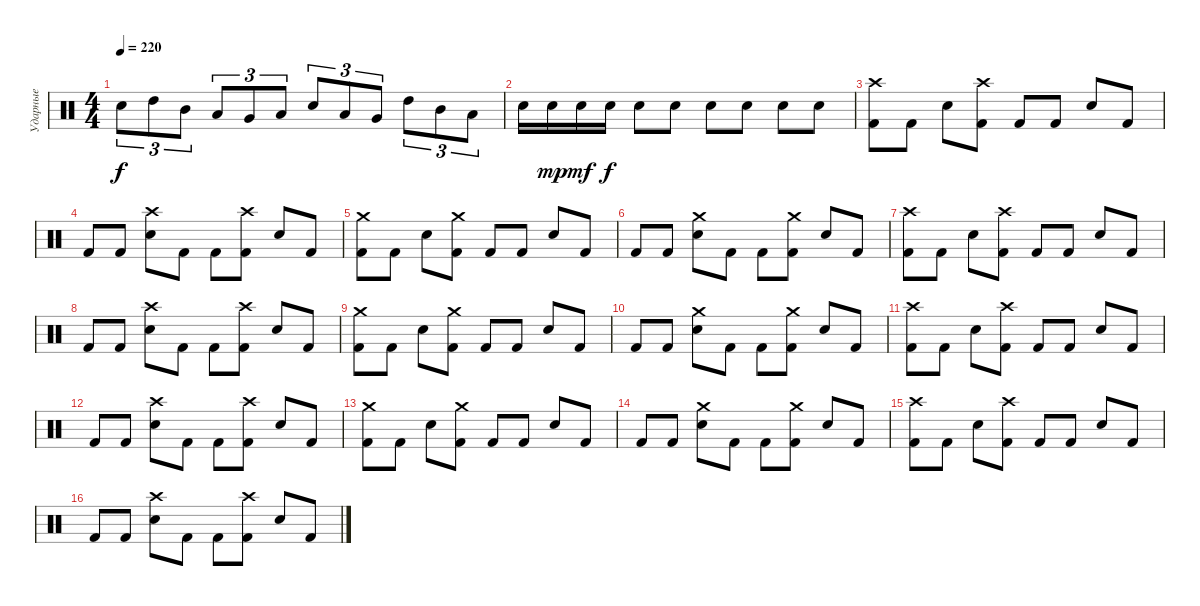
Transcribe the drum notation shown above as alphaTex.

\track ("Ударные" "Ударные") {instrument percussion}
\staff {score}
\articulation defaults
\ts (4 4)
\tempo 220
\clef neutral
\ks c "Electric Snare (hit)".8{tu (3 2) dy f} "High Tom (hit)".8{tu (3 2)} "Mid Tom (hit)".8{tu (3 2)} "Low Tom (hit)".8{tu (3 2)} "Very Low Tom (hit)".8{tu (3 2)} "Low Floor Tom (hit)".8{tu (3 2)} "Electric Snare (hit)".8{tu (3 2)} "Low Tom (hit)".8{tu (3 2)} "Very Low Tom (hit)".8{tu (3 2)} "High Tom (hit)".8{tu (3 2)} "Mid Tom (hit)".8{tu (3 2)} "Low Tom (hit)".8{tu (3 2)}
|
"Electric Snare (hit)".16 "Electric Snare (hit)".16{dy mp} "Electric Snare (hit)".16{dy mf} "Electric Snare (hit)".16{dy f} "Electric Snare (hit)".8 "Electric Snare (hit)".8 "Electric Snare (hit)".8 "Electric Snare (hit)".8 "Electric Snare (hit)".8 "Electric Snare (hit)".8 |
("Crash high (hit)" "Kick (hit) 2").8 "Kick (hit) 2".8 "Electric Snare (hit)".8 ("Crash high (hit)" "Kick (hit) 2").8 "Kick (hit) 2".8 "Kick (hit) 2".8 "Electric Snare (hit)".8 "Kick (hit) 2".8 |
"Kick (hit) 2".8 "Kick (hit) 2".8 ("Crash high (hit)" "Electric Snare (hit)").8 "Kick (hit) 2".8 "Kick (hit) 2".8 ("Crash high (hit)" "Kick (hit) 2").8 "Electric Snare (hit)".8 "Kick (hit) 2".8 |
("Crash medium (hit)" "Kick (hit) 2").8 "Kick (hit) 2".8 "Electric Snare (hit)".8 ("Crash medium (hit)" "Kick (hit) 2").8 "Kick (hit) 2".8 "Kick (hit) 2".8 "Electric Snare (hit)".8 "Kick (hit) 2".8 |
"Kick (hit) 2".8 "Kick (hit) 2".8 ("Crash medium (hit)" "Electric Snare (hit)").8 "Kick (hit) 2".8 "Kick (hit) 2".8 ("Crash medium (hit)" "Kick (hit) 2").8 "Electric Snare (hit)".8 "Kick (hit) 2".8 |
("Crash high (hit)" "Kick (hit) 2").8 "Kick (hit) 2".8 "Electric Snare (hit)".8 ("Crash high (hit)" "Kick (hit) 2").8 "Kick (hit) 2".8 "Kick (hit) 2".8 "Electric Snare (hit)".8 "Kick (hit) 2".8 |
"Kick (hit) 2".8 "Kick (hit) 2".8 ("Crash high (hit)" "Electric Snare (hit)").8 "Kick (hit) 2".8 "Kick (hit) 2".8 ("Crash high (hit)" "Kick (hit) 2").8 "Electric Snare (hit)".8 "Kick (hit) 2".8 |
("Crash medium (hit)" "Kick (hit) 2").8 "Kick (hit) 2".8 "Electric Snare (hit)".8 ("Crash medium (hit)" "Kick (hit) 2").8 "Kick (hit) 2".8 "Kick (hit) 2".8 "Electric Snare (hit)".8 "Kick (hit) 2".8 |
"Kick (hit) 2".8 "Kick (hit) 2".8 ("Crash medium (hit)" "Electric Snare (hit)").8 "Kick (hit) 2".8 "Kick (hit) 2".8 ("Crash medium (hit)" "Kick (hit) 2").8 "Electric Snare (hit)".8 "Kick (hit) 2".8 |
("Crash high (hit)" "Kick (hit) 2").8 "Kick (hit) 2".8 "Electric Snare (hit)".8 ("Crash high (hit)" "Kick (hit) 2").8 "Kick (hit) 2".8 "Kick (hit) 2".8 "Electric Snare (hit)".8 "Kick (hit) 2".8 |
"Kick (hit) 2".8 "Kick (hit) 2".8 ("Crash high (hit)" "Electric Snare (hit)").8 "Kick (hit) 2".8 "Kick (hit) 2".8 ("Crash high (hit)" "Kick (hit) 2").8 "Electric Snare (hit)".8 "Kick (hit) 2".8 |
("Crash medium (hit)" "Kick (hit) 2").8 "Kick (hit) 2".8 "Electric Snare (hit)".8 ("Crash medium (hit)" "Kick (hit) 2").8 "Kick (hit) 2".8 "Kick (hit) 2".8 "Electric Snare (hit)".8 "Kick (hit) 2".8 |
"Kick (hit) 2".8 "Kick (hit) 2".8 ("Crash medium (hit)" "Electric Snare (hit)").8 "Kick (hit) 2".8 "Kick (hit) 2".8 ("Crash medium (hit)" "Kick (hit) 2").8 "Electric Snare (hit)".8 "Kick (hit) 2".8 |
("Crash high (hit)" "Kick (hit) 2").8 "Kick (hit) 2".8 "Electric Snare (hit)".8 ("Crash high (hit)" "Kick (hit) 2").8 "Kick (hit) 2".8 "Kick (hit) 2".8 "Electric Snare (hit)".8 "Kick (hit) 2".8 |
"Kick (hit) 2".8 "Kick (hit) 2".8 ("Crash high (hit)" "Electric Snare (hit)").8 "Kick (hit) 2".8 "Kick (hit) 2".8 ("Crash high (hit)" "Kick (hit) 2").8 "Electric Snare (hit)".8 "Kick (hit) 2".8
